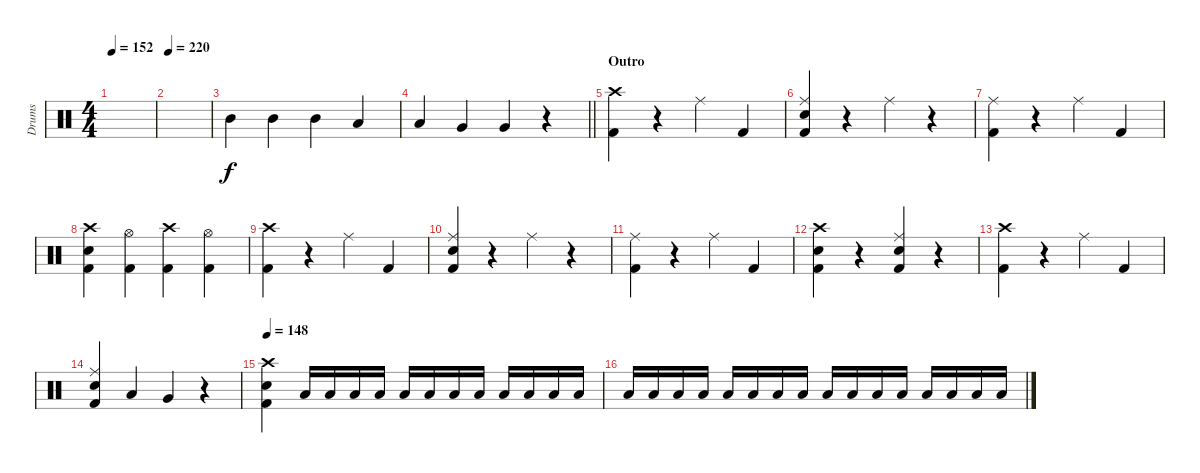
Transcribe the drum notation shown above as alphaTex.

\track ("Drums" "Drums") {instrument percussion}
\staff {score}
\articulation defaults
\ts (4 4)
\tempo 152
\clef neutral
\ks c
|
\tempo 220
|
"Mid Tom (hit)".4 "Mid Tom (hit)".4 "Mid Tom (hit)".4 "Low Tom (hit)".4 |
\barLineRight lightlight "Low Tom (hit)".4 "Very Low Tom (hit)".4 "Very Low Tom (hit)".4
r.4 |
\section ("" "Outro")
("Crash high (hit)" "Kick (hit) 2").4 r.4 "Ride (middle)".4 "Kick (hit) 2".4 |
("Ride (middle)" "Snare (hit) 2" "Kick (hit) 2").4 r.4 "Ride (middle)".4 r.4 |
("Ride (middle)" "Kick (hit) 2").4 r.4 "Ride (middle)".4 "Kick (hit) 2".4 |
("Crash high (hit)" "Snare (hit) 2" "Kick (hit) 2").4 ("Hi-Hat (open)" "Kick (hit) 2").4 ("Crash high (hit)" "Kick (hit) 2").4 ("Hi-Hat (open)" "Kick (hit) 2").4 |
("Crash high (hit)" "Kick (hit) 2").4 r.4 "Ride (middle)".4 "Kick (hit) 2".4 |
("Ride (middle)" "Snare (hit) 2" "Kick (hit) 2").4 r.4 "Ride (middle)".4 r.4 |
("Ride (middle)" "Kick (hit) 2").4 r.4 "Ride (middle)".4 "Kick (hit) 2".4 |
("Crash high (hit)" "Snare (hit) 2" "Kick (hit) 2").4 r.4 ("Ride (middle)" "Snare (hit) 2" "Kick (hit) 2").4 r.4 |
("Crash high (hit)" "Kick (hit) 2").4 r.4 "Ride (middle)".4 "Kick (hit) 2".4 |
("Ride (middle)" "Snare (hit) 2" "Kick (hit) 2").4 "Low Tom (hit)".4 "Very Low Tom (hit)".4 r.4 |
\tempo 148
("Crash high (hit)" "Snare (hit) 2" "Kick (hit) 2").4 "Low Tom (hit)".16 "Low Tom (hit)".16 "Low Tom (hit)".16 "Low Tom (hit)".16 "Low Tom (hit)".16 "Low Tom (hit)".16 "Low Tom (hit)".16 "Low Tom (hit)".16 "Low Tom (hit)".16 "Low Tom (hit)".16 "Low Tom (hit)".16 "Low Tom (hit)".16 |
"Low Tom (hit)".16 "Low Tom (hit)".16 "Low Tom (hit)".16 "Low Tom (hit)".16 "Low Tom (hit)".16 "Low Tom (hit)".16 "Low Tom (hit)".16 "Low Tom (hit)".16 "Low Tom (hit)".16 "Low Tom (hit)".16 "Low Tom (hit)".16 "Low Tom (hit)".16 "Low Tom (hit)".16 "Low Tom (hit)".16 "Low Tom (hit)".16 "Low Tom (hit)".16
